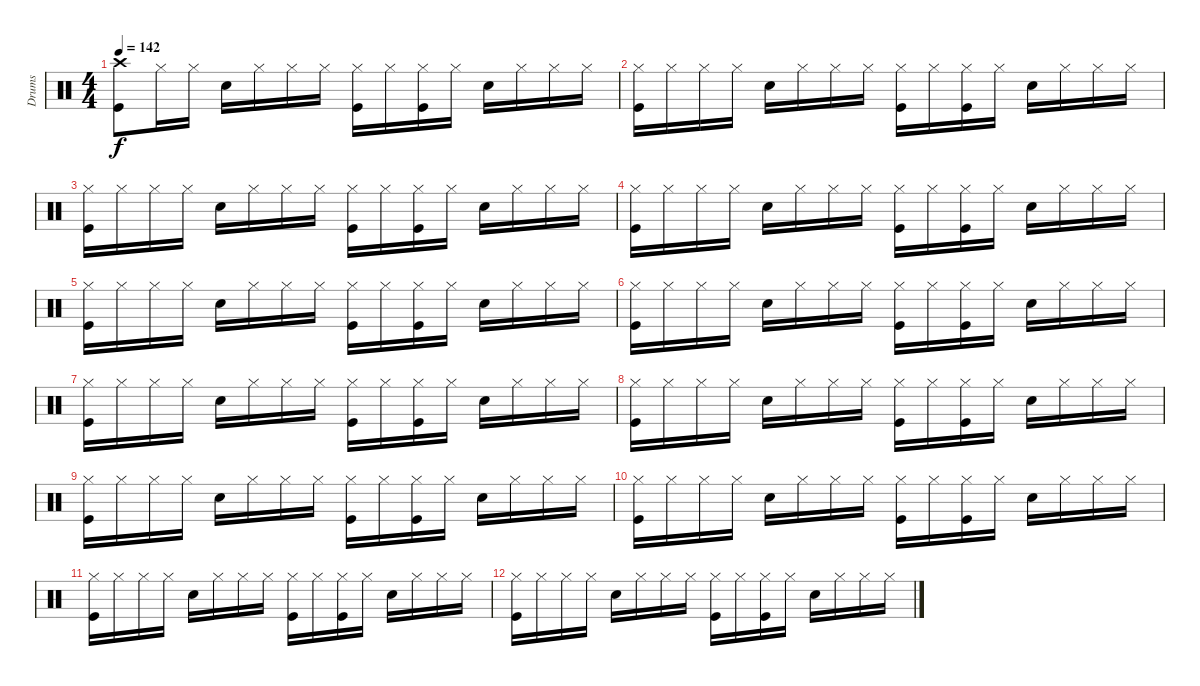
\track ("Drums" "Drums") {instrument percussion}
\staff {score}
\articulation defaults
\ts (4 4)
\tempo 142
\clef neutral
\ks c
("Crash high (hit)" "Kick (hit)").8{dy f} "Hi-Hat (closed)".16 "Hi-Hat (closed)".16 "Snare (hit) 2".16 "Hi-Hat (closed)".16 "Hi-Hat (closed)".16 "Hi-Hat (closed)".16 ("Hi-Hat (closed)" "Kick (hit)").16 "Hi-Hat (closed)".16 ("Hi-Hat (closed)" "Kick (hit)").16 "Hi-Hat (closed)".16 "Snare (hit) 2".16 "Hi-Hat (closed)".16 "Hi-Hat (closed)".16 "Hi-Hat (closed)".16 |
("Hi-Hat (closed)" "Kick (hit)").16 "Hi-Hat (closed)".16 "Hi-Hat (closed)".16 "Hi-Hat (closed)".16 "Snare (hit) 2".16 "Hi-Hat (closed)".16 "Hi-Hat (closed)".16 "Hi-Hat (closed)".16 ("Hi-Hat (closed)" "Kick (hit)").16 "Hi-Hat (closed)".16 ("Hi-Hat (closed)" "Kick (hit)").16 "Hi-Hat (closed)".16 "Snare (hit) 2".16 "Hi-Hat (closed)".16 "Hi-Hat (closed)".16 "Hi-Hat (closed)".16 |
("Hi-Hat (closed)" "Kick (hit)").16 "Hi-Hat (closed)".16 "Hi-Hat (closed)".16 "Hi-Hat (closed)".16 "Snare (hit) 2".16 "Hi-Hat (closed)".16 "Hi-Hat (closed)".16 "Hi-Hat (closed)".16 ("Hi-Hat (closed)" "Kick (hit)").16 "Hi-Hat (closed)".16 ("Hi-Hat (closed)" "Kick (hit)").16 "Hi-Hat (closed)".16 "Snare (hit) 2".16 "Hi-Hat (closed)".16 "Hi-Hat (closed)".16 "Hi-Hat (closed)".16 |
("Hi-Hat (closed)" "Kick (hit)").16 "Hi-Hat (closed)".16 "Hi-Hat (closed)".16 "Hi-Hat (closed)".16 "Snare (hit) 2".16 "Hi-Hat (closed)".16 "Hi-Hat (closed)".16 "Hi-Hat (closed)".16 ("Hi-Hat (closed)" "Kick (hit)").16 "Hi-Hat (closed)".16 ("Hi-Hat (closed)" "Kick (hit)").16 "Hi-Hat (closed)".16 "Snare (hit) 2".16 "Hi-Hat (closed)".16 "Hi-Hat (closed)".16 "Hi-Hat (closed)".16 |
("Hi-Hat (closed)" "Kick (hit)").16 "Hi-Hat (closed)".16 "Hi-Hat (closed)".16 "Hi-Hat (closed)".16 "Snare (hit) 2".16 "Hi-Hat (closed)".16 "Hi-Hat (closed)".16 "Hi-Hat (closed)".16 ("Hi-Hat (closed)" "Kick (hit)").16 "Hi-Hat (closed)".16 ("Hi-Hat (closed)" "Kick (hit)").16 "Hi-Hat (closed)".16 "Snare (hit) 2".16 "Hi-Hat (closed)".16 "Hi-Hat (closed)".16 "Hi-Hat (closed)".16 |
("Hi-Hat (closed)" "Kick (hit)").16 "Hi-Hat (closed)".16 "Hi-Hat (closed)".16 "Hi-Hat (closed)".16 "Snare (hit) 2".16 "Hi-Hat (closed)".16 "Hi-Hat (closed)".16 "Hi-Hat (closed)".16 ("Hi-Hat (closed)" "Kick (hit)").16 "Hi-Hat (closed)".16 ("Hi-Hat (closed)" "Kick (hit)").16 "Hi-Hat (closed)".16 "Snare (hit) 2".16 "Hi-Hat (closed)".16 "Hi-Hat (closed)".16 "Hi-Hat (closed)".16 |
("Hi-Hat (closed)" "Kick (hit)").16 "Hi-Hat (closed)".16 "Hi-Hat (closed)".16 "Hi-Hat (closed)".16 "Snare (hit) 2".16 "Hi-Hat (closed)".16 "Hi-Hat (closed)".16 "Hi-Hat (closed)".16 ("Hi-Hat (closed)" "Kick (hit)").16 "Hi-Hat (closed)".16 ("Hi-Hat (closed)" "Kick (hit)").16 "Hi-Hat (closed)".16 "Snare (hit) 2".16 "Hi-Hat (closed)".16 "Hi-Hat (closed)".16 "Hi-Hat (closed)".16 |
("Hi-Hat (closed)" "Kick (hit)").16 "Hi-Hat (closed)".16 "Hi-Hat (closed)".16 "Hi-Hat (closed)".16 "Snare (hit) 2".16 "Hi-Hat (closed)".16 "Hi-Hat (closed)".16 "Hi-Hat (closed)".16 ("Hi-Hat (closed)" "Kick (hit)").16 "Hi-Hat (closed)".16 ("Hi-Hat (closed)" "Kick (hit)").16 "Hi-Hat (closed)".16 "Snare (hit) 2".16 "Hi-Hat (closed)".16 "Hi-Hat (closed)".16 "Hi-Hat (closed)".16 |
("Hi-Hat (closed)" "Kick (hit)").16 "Hi-Hat (closed)".16 "Hi-Hat (closed)".16 "Hi-Hat (closed)".16 "Snare (hit) 2".16 "Hi-Hat (closed)".16 "Hi-Hat (closed)".16 "Hi-Hat (closed)".16 ("Hi-Hat (closed)" "Kick (hit)").16 "Hi-Hat (closed)".16 ("Hi-Hat (closed)" "Kick (hit)").16 "Hi-Hat (closed)".16 "Snare (hit) 2".16 "Hi-Hat (closed)".16 "Hi-Hat (closed)".16 "Hi-Hat (closed)".16 |
("Hi-Hat (closed)" "Kick (hit)").16 "Hi-Hat (closed)".16 "Hi-Hat (closed)".16 "Hi-Hat (closed)".16 "Snare (hit) 2".16 "Hi-Hat (closed)".16 "Hi-Hat (closed)".16 "Hi-Hat (closed)".16 ("Hi-Hat (closed)" "Kick (hit)").16 "Hi-Hat (closed)".16 ("Hi-Hat (closed)" "Kick (hit)").16 "Hi-Hat (closed)".16 "Snare (hit) 2".16 "Hi-Hat (closed)".16 "Hi-Hat (closed)".16 "Hi-Hat (closed)".16 |
("Hi-Hat (closed)" "Kick (hit)").16 "Hi-Hat (closed)".16 "Hi-Hat (closed)".16 "Hi-Hat (closed)".16 "Snare (hit) 2".16 "Hi-Hat (closed)".16 "Hi-Hat (closed)".16 "Hi-Hat (closed)".16 ("Hi-Hat (closed)" "Kick (hit)").16 "Hi-Hat (closed)".16 ("Hi-Hat (closed)" "Kick (hit)").16 "Hi-Hat (closed)".16 "Snare (hit) 2".16 "Hi-Hat (closed)".16 "Hi-Hat (closed)".16 "Hi-Hat (closed)".16 |
("Hi-Hat (closed)" "Kick (hit)").16 "Hi-Hat (closed)".16 "Hi-Hat (closed)".16 "Hi-Hat (closed)".16 "Snare (hit) 2".16 "Hi-Hat (closed)".16 "Hi-Hat (closed)".16 "Hi-Hat (closed)".16 ("Hi-Hat (closed)" "Kick (hit)").16 "Hi-Hat (closed)".16 ("Hi-Hat (closed)" "Kick (hit)").16 "Hi-Hat (closed)".16 "Snare (hit) 2".16 "Hi-Hat (closed)".16 "Hi-Hat (closed)".16 "Hi-Hat (closed)".16
